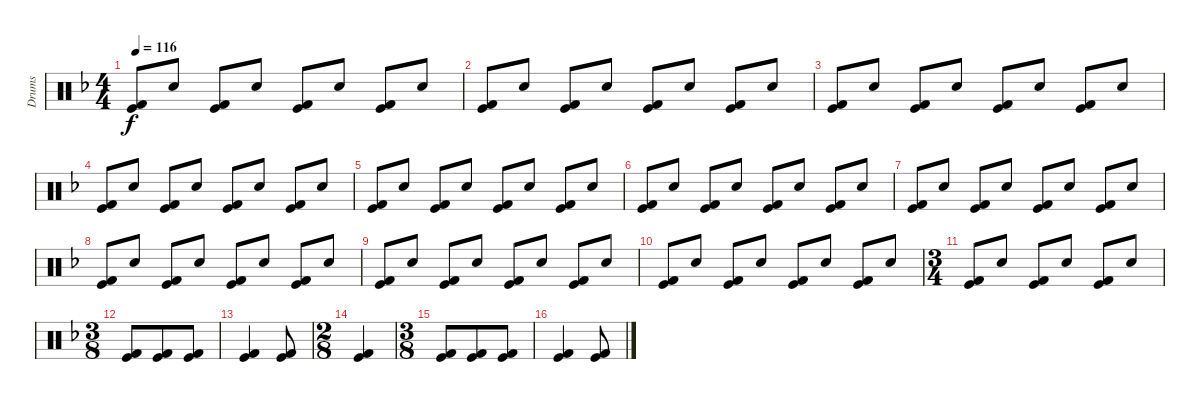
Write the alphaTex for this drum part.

\track ("Drums" "Drums") {instrument percussion}
\staff {score}
\articulation defaults
\ts (4 4)
\tempo 116
\clef neutral
\ks f
("Kick (hit)" "Kick (hit) 2").8{dy f} "Snare (hit) 2".8 ("Kick (hit)" "Kick (hit) 2").8 "Snare (hit) 2".8 ("Kick (hit)" "Kick (hit) 2").8 "Snare (hit) 2".8 ("Kick (hit)" "Kick (hit) 2").8 "Snare (hit) 2".8 |
("Kick (hit)" "Kick (hit) 2").8 "Snare (hit) 2".8 ("Kick (hit)" "Kick (hit) 2").8 "Snare (hit) 2".8 ("Kick (hit)" "Kick (hit) 2").8 "Snare (hit) 2".8 ("Kick (hit)" "Kick (hit) 2").8 "Snare (hit) 2".8 |
("Kick (hit)" "Kick (hit) 2").8 "Snare (hit) 2".8 ("Kick (hit)" "Kick (hit) 2").8 "Snare (hit) 2".8 ("Kick (hit)" "Kick (hit) 2").8 "Snare (hit) 2".8 ("Kick (hit)" "Kick (hit) 2").8 "Snare (hit) 2".8 |
("Kick (hit)" "Kick (hit) 2").8 "Snare (hit) 2".8 ("Kick (hit)" "Kick (hit) 2").8 "Snare (hit) 2".8 ("Kick (hit)" "Kick (hit) 2").8 "Snare (hit) 2".8 ("Kick (hit)" "Kick (hit) 2").8 "Snare (hit) 2".8 |
("Kick (hit)" "Kick (hit) 2").8 "Snare (hit) 2".8 ("Kick (hit)" "Kick (hit) 2").8 "Snare (hit) 2".8 ("Kick (hit)" "Kick (hit) 2").8 "Snare (hit) 2".8 ("Kick (hit)" "Kick (hit) 2").8 "Snare (hit) 2".8 |
("Kick (hit)" "Kick (hit) 2").8 "Snare (hit) 2".8 ("Kick (hit)" "Kick (hit) 2").8 "Snare (hit) 2".8 ("Kick (hit)" "Kick (hit) 2").8 "Snare (hit) 2".8 ("Kick (hit)" "Kick (hit) 2").8 "Snare (hit) 2".8 |
("Kick (hit)" "Kick (hit) 2").8 "Snare (hit) 2".8 ("Kick (hit)" "Kick (hit) 2").8 "Snare (hit) 2".8 ("Kick (hit)" "Kick (hit) 2").8 "Snare (hit) 2".8 ("Kick (hit)" "Kick (hit) 2").8 "Snare (hit) 2".8 |
("Kick (hit)" "Kick (hit) 2").8 "Snare (hit) 2".8 ("Kick (hit)" "Kick (hit) 2").8 "Snare (hit) 2".8 ("Kick (hit)" "Kick (hit) 2").8 "Snare (hit) 2".8 ("Kick (hit)" "Kick (hit) 2").8 "Snare (hit) 2".8 |
("Kick (hit)" "Kick (hit) 2").8 "Snare (hit) 2".8 ("Kick (hit)" "Kick (hit) 2").8 "Snare (hit) 2".8 ("Kick (hit)" "Kick (hit) 2").8 "Snare (hit) 2".8 ("Kick (hit)" "Kick (hit) 2").8 "Snare (hit) 2".8 |
("Kick (hit)" "Kick (hit) 2").8 "Snare (hit) 2".8 ("Kick (hit)" "Kick (hit) 2").8 "Snare (hit) 2".8 ("Kick (hit)" "Kick (hit) 2").8 "Snare (hit) 2".8 ("Kick (hit)" "Kick (hit) 2").8 "Snare (hit) 2".8 |
\ts (3 4)
("Kick (hit)" "Kick (hit) 2").8 "Snare (hit) 2".8 ("Kick (hit)" "Kick (hit) 2").8 "Snare (hit) 2".8 ("Kick (hit)" "Kick (hit) 2").8 "Snare (hit) 2".8 |
\ts (3 8)
("Kick (hit)" "Kick (hit) 2").8 ("Kick (hit)" "Kick (hit) 2").8 ("Kick (hit)" "Kick (hit) 2").8 |
("Kick (hit)" "Kick (hit) 2").4 ("Kick (hit)" "Kick (hit) 2").8 |
\ts (2 8)
("Kick (hit)" "Kick (hit) 2").4 |
\ts (3 8)
("Kick (hit)" "Kick (hit) 2").8 ("Kick (hit)" "Kick (hit) 2").8 ("Kick (hit)" "Kick (hit) 2").8 |
("Kick (hit)" "Kick (hit) 2").4 ("Kick (hit)" "Kick (hit) 2").8
